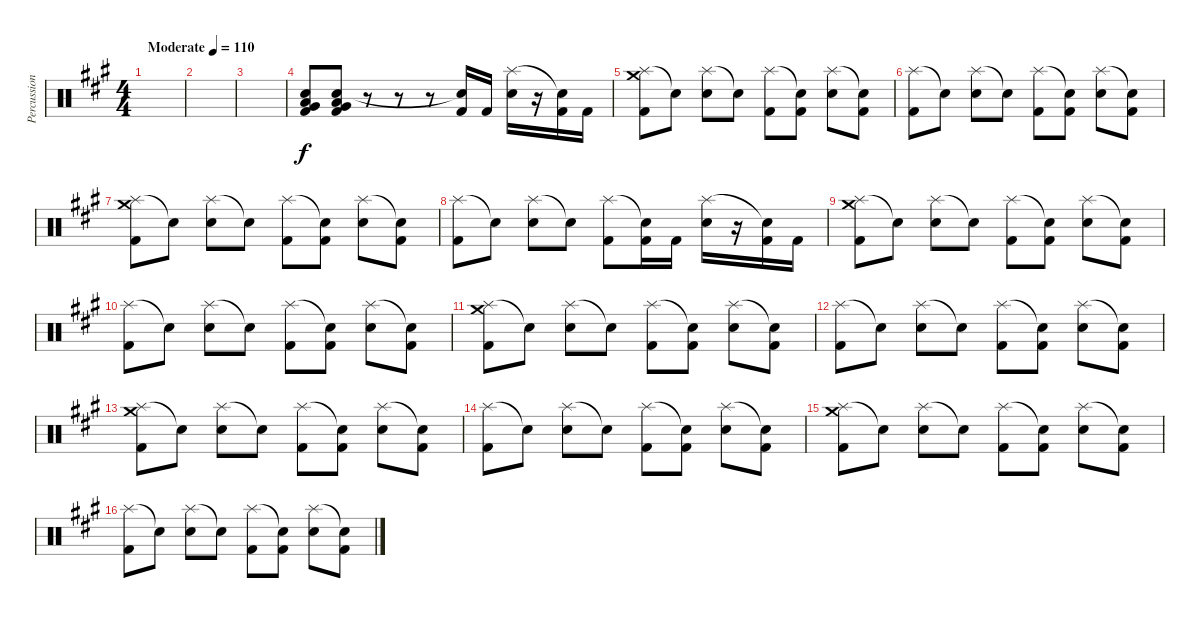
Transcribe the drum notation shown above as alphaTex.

\track ("Percussion" "Percussion") {instrument percussion}
\staff {score}
\articulation defaults
\ts (4 4)
\tempo (110 "Moderate")
\clef neutral
\ks a
|
|
|
("Electric Snare (hit)" "Low Floor Tom (hit)" "Very Low Tom (hit)" "Kick (hit) 2").8 ("Electric Snare (hit)" "Low Floor Tom (hit)" "Very Low Tom (hit)" "Kick (hit) 2").8 r.8 r.8 r.8 ("Snare (hit)"{t} "Kick (hit) 2").16 "Kick (hit) 2".16 ("Splash (hit)" "Electric Snare (hit)").16 r.16 ("Snare (hit)"{t} "Kick (hit) 2").16 "Kick (hit) 2".16 |
("Splash (hit)" "Crash medium (hit)" "Kick (hit) 2").8 "Snare (hit)"{t}.8 ("Splash (hit)" "Electric Snare (hit)").8 "Snare (hit)"{t}.8 ("Splash (hit)" "Kick (hit) 2").8 ("Snare (hit)"{t} "Kick (hit) 2").8 ("Splash (hit)" "Electric Snare (hit)").8 ("Snare (hit)"{t} "Kick (hit) 2").8 |
("Splash (hit)" "Kick (hit) 2").8 "Snare (hit)"{t}.8 ("Splash (hit)" "Electric Snare (hit)").8 "Snare (hit)"{t}.8 ("Splash (hit)" "Kick (hit) 2").8 ("Snare (hit)"{t} "Kick (hit) 2").8 ("Splash (hit)" "Electric Snare (hit)").8 ("Snare (hit)"{t} "Kick (hit) 2").8 |
("Splash (hit)" "Crash medium (hit)" "Kick (hit) 2").8 "Snare (hit)"{t}.8 ("Splash (hit)" "Electric Snare (hit)").8 "Snare (hit)"{t}.8 ("Splash (hit)" "Kick (hit) 2").8 ("Snare (hit)"{t} "Kick (hit) 2").8 ("Splash (hit)" "Electric Snare (hit)").8 ("Snare (hit)"{t} "Kick (hit) 2").8 |
("Splash (hit)" "Kick (hit) 2").8 "Snare (hit)"{t}.8 ("Splash (hit)" "Electric Snare (hit)").8 "Snare (hit)"{t}.8 ("Splash (hit)" "Kick (hit) 2").8 ("Snare (hit)"{t} "Kick (hit) 2").16 "Kick (hit) 2".16 ("Splash (hit)" "Electric Snare (hit)").16 r.16 ("Snare (hit)"{t} "Kick (hit) 2").16 "Kick (hit) 2".16 |
("Splash (hit)" "Crash medium (hit)" "Kick (hit) 2").8 "Snare (hit)"{t}.8 ("Splash (hit)" "Electric Snare (hit)").8 "Snare (hit)"{t}.8 ("Splash (hit)" "Kick (hit) 2").8 ("Snare (hit)"{t} "Kick (hit) 2").8 ("Splash (hit)" "Electric Snare (hit)").8 ("Snare (hit)"{t} "Kick (hit) 2").8 |
("Splash (hit)" "Kick (hit) 2").8 "Snare (hit)"{t}.8 ("Splash (hit)" "Electric Snare (hit)").8 "Snare (hit)"{t}.8 ("Splash (hit)" "Kick (hit) 2").8 ("Snare (hit)"{t} "Kick (hit) 2").8 ("Splash (hit)" "Electric Snare (hit)").8 ("Snare (hit)"{t} "Kick (hit) 2").8 |
("Splash (hit)" "Crash medium (hit)" "Kick (hit) 2").8 "Snare (hit)"{t}.8 ("Splash (hit)" "Electric Snare (hit)").8 "Snare (hit)"{t}.8 ("Splash (hit)" "Kick (hit) 2").8 ("Snare (hit)"{t} "Kick (hit) 2").8 ("Splash (hit)" "Electric Snare (hit)").8 ("Snare (hit)"{t} "Kick (hit) 2").8 |
("Splash (hit)" "Kick (hit) 2").8 "Snare (hit)"{t}.8 ("Splash (hit)" "Electric Snare (hit)").8 "Snare (hit)"{t}.8 ("Splash (hit)" "Kick (hit) 2").8 ("Snare (hit)"{t} "Kick (hit) 2").8 ("Splash (hit)" "Electric Snare (hit)").8 ("Snare (hit)"{t} "Kick (hit) 2").8 |
("Splash (hit)" "Crash medium (hit)" "Kick (hit) 2").8 "Snare (hit)"{t}.8 ("Splash (hit)" "Electric Snare (hit)").8 "Snare (hit)"{t}.8 ("Splash (hit)" "Kick (hit) 2").8 ("Snare (hit)"{t} "Kick (hit) 2").8 ("Splash (hit)" "Electric Snare (hit)").8 ("Snare (hit)"{t} "Kick (hit) 2").8 |
("Splash (hit)" "Kick (hit) 2").8 "Snare (hit)"{t}.8 ("Splash (hit)" "Electric Snare (hit)").8 "Snare (hit)"{t}.8 ("Splash (hit)" "Kick (hit) 2").8 ("Snare (hit)"{t} "Kick (hit) 2").8 ("Splash (hit)" "Electric Snare (hit)").8 ("Snare (hit)"{t} "Kick (hit) 2").8 |
("Splash (hit)" "Crash medium (hit)" "Kick (hit) 2").8 "Snare (hit)"{t}.8 ("Splash (hit)" "Electric Snare (hit)").8 "Snare (hit)"{t}.8 ("Splash (hit)" "Kick (hit) 2").8 ("Snare (hit)"{t} "Kick (hit) 2").8 ("Splash (hit)" "Electric Snare (hit)").8 ("Snare (hit)"{t} "Kick (hit) 2").8 |
("Splash (hit)" "Kick (hit) 2").8 "Snare (hit)"{t}.8 ("Splash (hit)" "Electric Snare (hit)").8 "Snare (hit)"{t}.8 ("Splash (hit)" "Kick (hit) 2").8 ("Snare (hit)"{t} "Kick (hit) 2").8 ("Splash (hit)" "Electric Snare (hit)").8 ("Snare (hit)"{t} "Kick (hit) 2").8
